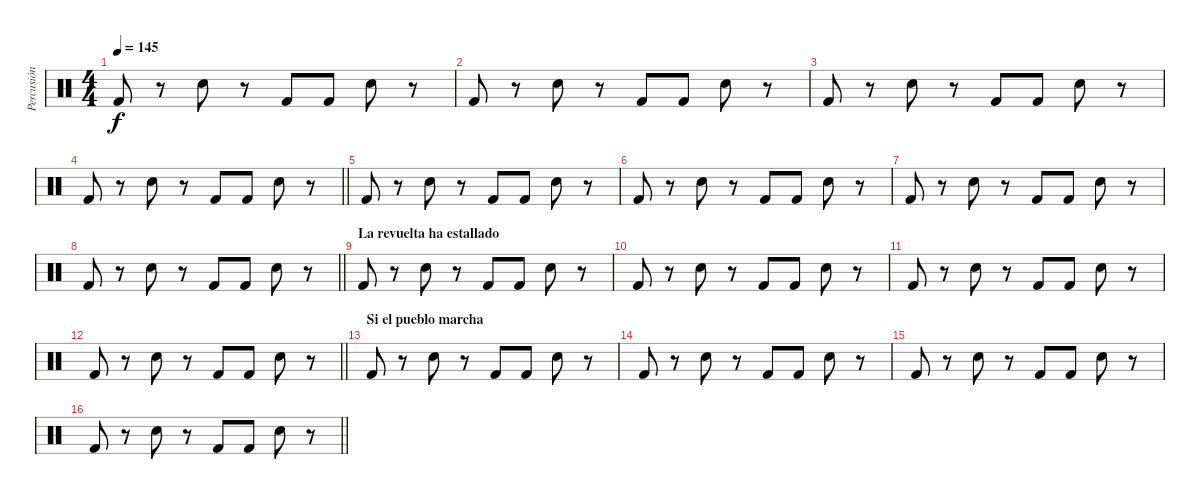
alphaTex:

\track ("Percusión" "Percusión") {instrument percussion}
\staff {score}
\articulation defaults
\ts (4 4)
\tempo 145
\clef neutral
\ks c "Kick (hit) 2".8{dy f}
r.8 "Snare (hit) 2".8 r.8 "Kick (hit) 2".8 "Kick (hit) 2".8 "Snare (hit) 2".8 r.8 |
"Kick (hit) 2".8 r.8 "Snare (hit) 2".8 r.8 "Kick (hit) 2".8 "Kick (hit) 2".8 "Snare (hit) 2".8 r.8 |
"Kick (hit) 2".8 r.8 "Snare (hit) 2".8 r.8 "Kick (hit) 2".8 "Kick (hit) 2".8 "Snare (hit) 2".8 r.8 |
\barLineRight lightlight "Kick (hit) 2".8
r.8 "Snare (hit) 2".8 r.8 "Kick (hit) 2".8 "Kick (hit) 2".8 "Snare (hit) 2".8 r.8 |
"Kick (hit) 2".8 r.8 "Snare (hit) 2".8 r.8 "Kick (hit) 2".8 "Kick (hit) 2".8 "Snare (hit) 2".8 r.8 |
"Kick (hit) 2".8 r.8 "Snare (hit) 2".8 r.8 "Kick (hit) 2".8 "Kick (hit) 2".8 "Snare (hit) 2".8 r.8 |
"Kick (hit) 2".8 r.8 "Snare (hit) 2".8 r.8 "Kick (hit) 2".8 "Kick (hit) 2".8 "Snare (hit) 2".8 r.8 |
\barLineRight lightlight "Kick (hit) 2".8
r.8 "Snare (hit) 2".8 r.8 "Kick (hit) 2".8 "Kick (hit) 2".8 "Snare (hit) 2".8 r.8 |
\section ("" "La revuelta ha estallado")
"Kick (hit) 2".8 r.8 "Snare (hit) 2".8 r.8 "Kick (hit) 2".8 "Kick (hit) 2".8 "Snare (hit) 2".8 r.8 |
"Kick (hit) 2".8 r.8 "Snare (hit) 2".8 r.8 "Kick (hit) 2".8 "Kick (hit) 2".8 "Snare (hit) 2".8 r.8 |
"Kick (hit) 2".8 r.8 "Snare (hit) 2".8 r.8 "Kick (hit) 2".8 "Kick (hit) 2".8 "Snare (hit) 2".8 r.8 |
\barLineRight lightlight "Kick (hit) 2".8
r.8 "Snare (hit) 2".8 r.8 "Kick (hit) 2".8 "Kick (hit) 2".8 "Snare (hit) 2".8 r.8 |
\section ("" "Si el pueblo marcha")
"Kick (hit) 2".8 r.8 "Snare (hit) 2".8 r.8 "Kick (hit) 2".8 "Kick (hit) 2".8 "Snare (hit) 2".8 r.8 |
"Kick (hit) 2".8 r.8 "Snare (hit) 2".8 r.8 "Kick (hit) 2".8 "Kick (hit) 2".8 "Snare (hit) 2".8 r.8 |
"Kick (hit) 2".8 r.8 "Snare (hit) 2".8 r.8 "Kick (hit) 2".8 "Kick (hit) 2".8 "Snare (hit) 2".8 r.8 |
\barLineRight lightlight "Kick (hit) 2".8
r.8 "Snare (hit) 2".8 r.8 "Kick (hit) 2".8 "Kick (hit) 2".8 "Snare (hit) 2".8 r.8
